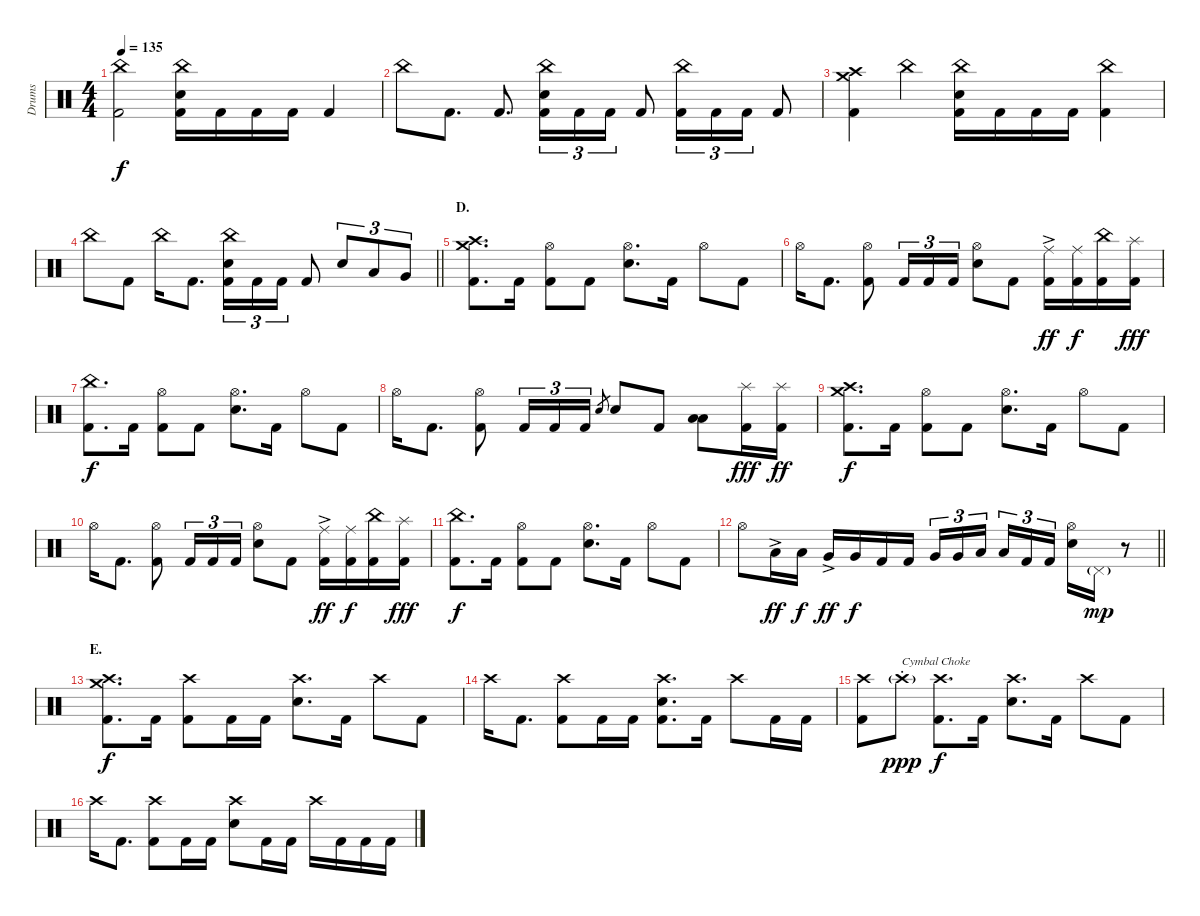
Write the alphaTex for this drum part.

\track ("Drums" "Drums") {instrument percussion}
\staff {score}
\articulation defaults
\ts (4 4)
\tempo 135
\clef neutral
\ks c
("China (hit)" "Kick (hit) 2").2{dy f} ("China (hit)" "Electric Snare (hit)" "Kick (hit) 2").16 "Kick (hit) 2".16 "Kick (hit) 2".16 "Kick (hit) 2".16 "Kick (hit) 2".4 |
"China (hit)".8 "Kick (hit) 2".8{d} "Kick (hit) 2".8{d} ("China (hit)" "Electric Snare (hit)" "Kick (hit) 2").16{tu (3 2)} "Kick (hit) 2".16{tu (3 2)} "Kick (hit) 2".16{tu (3 2)} "Kick (hit) 2".8 ("China (hit)" "Kick (hit) 2").16{tu (3 2)} "Kick (hit) 2".16{tu (3 2)} "Kick (hit) 2".16{tu (3 2)} "Kick (hit) 2".8 |
("Crash medium (hit)" "Crash high (hit)" "Kick (hit) 2").4 "China (hit)".4 ("China (hit)" "Electric Snare (hit)" "Kick (hit) 2").16 "Kick (hit) 2".16 "Kick (hit) 2".16 "Kick (hit) 2".16 ("China (hit)" "Kick (hit) 2").4 |
\barLineRight lightlight "China (hit)".8 "Kick (hit) 2".8 "China (hit)".16 "Kick (hit) 2".8{d}
("China (hit)" "Electric Snare (hit)" "Kick (hit) 2").16{tu (3 2)} "Kick (hit) 2".16{tu (3 2)} "Kick (hit) 2".16{tu (3 2)} "Kick (hit) 2".8 "Electric Snare (hit)".8{tu (3 2)} "Low Tom (hit)".8{tu (3 2)} "Very Low Tom (hit)".8{tu (3 2)} |
\section ("" "D.")
("Crash medium (hit)" "Crash high (hit)" "Kick (hit) 2").8{d} "Kick (hit) 2".16 ("Hi-Hat (open)" "Kick (hit) 2").8 "Kick (hit) 2".8 ("Hi-Hat (open)" "Electric Snare (hit)").8{d} "Kick (hit) 2".16 "Hi-Hat (open)".8 "Kick (hit) 2".8 |
"Hi-Hat (open)".16 "Kick (hit) 2".8{d} ("Hi-Hat (open)" "Kick (hit) 2").8 "Kick (hit) 2".16{tu (3 2)} "Kick (hit) 2".16{tu (3 2)} "Kick (hit) 2".16{tu (3 2)} ("Hi-Hat (open)" "Electric Snare (hit)").8 "Kick (hit) 2".8 ("Ride (middle)"{ac} "Kick (hit) 2").16{dy ff} ("Ride (middle)" "Kick (hit) 2").16{dy f} ("China (hit)" "Kick (hit) 2").16 ("Splash (hit)" "Kick (hit) 2").16{dy fff} |
("China (hit)" "Kick (hit) 2").8{d dy f} "Kick (hit) 2".16 ("Hi-Hat (open)" "Kick (hit) 2").8 "Kick (hit) 2".8 ("Hi-Hat (open)" "Electric Snare (hit)").8{d} "Kick (hit) 2".16 "Hi-Hat (open)".8 "Kick (hit) 2".8 |
"Hi-Hat (open)".16 "Kick (hit) 2".8{d} ("Hi-Hat (open)" "Kick (hit) 2").8 "Kick (hit) 2".16{tu (3 2)} "Kick (hit) 2".16{tu (3 2)} "Kick (hit) 2".16{tu (3 2)} "Electric Snare (hit)".8{gr} "Electric Snare (hit)".8 "Kick (hit) 2".8 ("Low Tom (hit)" "Low Floor Tom (hit)").8{bu 120} ("Splash (hit)" "Kick (hit) 2").16{dy fff} ("Splash (hit)" "Kick (hit) 2").16{dy ff} |
("Crash medium (hit)" "Crash high (hit)" "Kick (hit) 2").8{d dy f} "Kick (hit) 2".16 ("Hi-Hat (open)" "Kick (hit) 2").8 "Kick (hit) 2".8 ("Hi-Hat (open)" "Electric Snare (hit)").8{d} "Kick (hit) 2".16 "Hi-Hat (open)".8 "Kick (hit) 2".8 |
"Hi-Hat (open)".16 "Kick (hit) 2".8{d} ("Hi-Hat (open)" "Kick (hit) 2").8 "Kick (hit) 2".16{tu (3 2)} "Kick (hit) 2".16{tu (3 2)} "Kick (hit) 2".16{tu (3 2)} ("Hi-Hat (open)" "Electric Snare (hit)").8 "Kick (hit) 2".8 ("Ride (middle)"{ac} "Kick (hit) 2").16{dy ff} ("Ride (middle)" "Kick (hit) 2").16{dy f} ("China (hit)" "Kick (hit) 2").16 ("Splash (hit)" "Kick (hit) 2").16{dy fff} |
("China (hit)" "Kick (hit) 2").8{d dy f} "Kick (hit) 2".16 ("Hi-Hat (open)" "Kick (hit) 2").8 "Kick (hit) 2".8 ("Hi-Hat (open)" "Electric Snare (hit)").8{d} "Kick (hit) 2".16 "Hi-Hat (open)".8 "Kick (hit) 2".8 |
\barLineRight lightlight "Hi-Hat (open)".8 "Low Tom (hit)"{ac}.16{dy ff} "Low Tom (hit)".16{dy f} "Very Low Tom (hit)"{ac}.16{dy ff} "Very Low Tom (hit)".16{dy f} "Kick (hit) 2".16 "Kick (hit) 2".16 "Very Low Tom (hit)".16{tu (3 2)} "Very Low Tom (hit)".16{tu (3 2)} "Low Floor Tom (hit)".16{tu (3 2) beam splitsecondary} "Low Floor Tom (hit)".16{tu (3 2)} "Kick (hit) 2".16{tu (3 2)} "Kick (hit) 2".16{tu (3 2)}
("Hi-Hat (open)" "Electric Snare (hit)").16 "Pedal Hi-Hat (hit)"{g}.16{dy mp} r.8 |
\section ("" "E.")
("Crash medium (hit)" "Crash high (hit)" "Kick (hit) 2").8{d dy f} "Kick (hit) 2".16 ("Crash high (hit)" "Kick (hit) 2").8 "Kick (hit) 2".16 "Kick (hit) 2".16 ("Crash high (hit)" "Electric Snare (hit)").8{d} "Kick (hit) 2".16 "Crash high (hit)".8 "Kick (hit) 2".8 |
"Crash high (hit)".16 "Kick (hit) 2".8{d} ("Crash high (hit)" "Kick (hit) 2").8 "Kick (hit) 2".16 "Kick (hit) 2".16 ("Crash high (hit)" "Electric Snare (hit)" "Kick (hit) 2").8{d} "Kick (hit) 2".16 "Crash high (hit)".8 "Kick (hit) 2".16 "Kick (hit) 2".16 |
("Crash high (hit)" "Kick (hit) 2").8 "Crash high (hit)"{g st}.8{txt "Cymbal Choke" dy ppp} ("Crash high (hit)" "Kick (hit) 2").8{d dy f} "Kick (hit) 2".16 ("Crash high (hit)" "Electric Snare (hit)").8{d} "Kick (hit) 2".16 "Crash high (hit)".8 "Kick (hit) 2".8 |
"Crash high (hit)".16 "Kick (hit) 2".8{d} ("Crash high (hit)" "Kick (hit) 2").8 "Kick (hit) 2".16 "Kick (hit) 2".16 ("Crash high (hit)" "Electric Snare (hit)").8 "Kick (hit) 2".16 "Kick (hit) 2".16 "Crash high (hit)".16 "Kick (hit) 2".16 "Kick (hit) 2".16 "Kick (hit) 2".16
